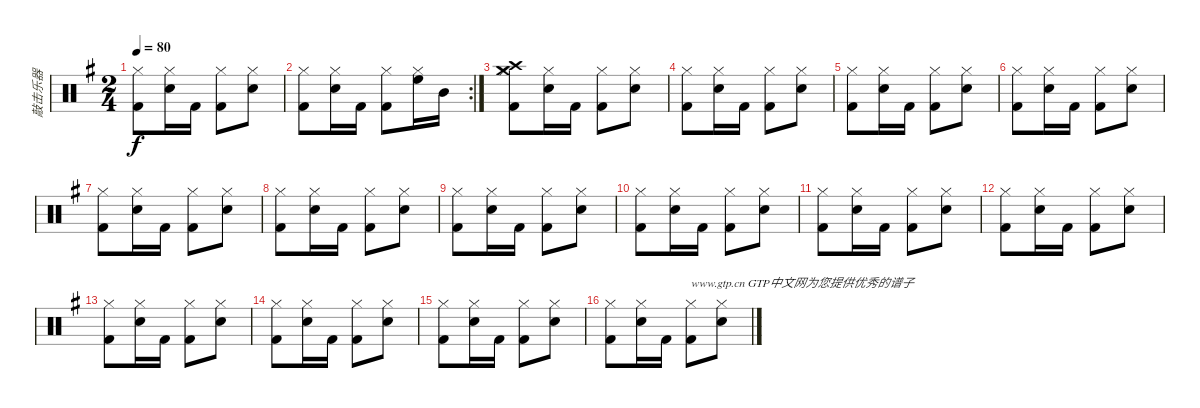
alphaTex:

\track ("敲击乐器" "敲击乐器") {instrument percussion}
\staff {score}
\articulation defaults
\ts (2 4)
\tempo 80
\clef neutral
\ks g
("Kick (hit) 2" "Hi-Hat (closed)").8{dy f} ("Electric Snare (hit)" "Hi-Hat (closed)").16 "Kick (hit) 2".16 ("Kick (hit) 2" "Hi-Hat (closed)").8 ("Electric Snare (hit)" "Hi-Hat (closed)").8 |
\rc 2
("Kick (hit) 2" "Hi-Hat (closed)").8 ("Electric Snare (hit)" "Hi-Hat (closed)").16 "Kick (hit) 2".16 ("Kick (hit) 2" "Hi-Hat (closed)").8 ("High Floor Tom (hit)" "Hi-Hat (closed)").16 "Mid Tom (hit)".16 |
("Kick (hit) 2" "Hi-Hat (closed)" "Crash medium (hit)" "Crash high (hit)").8 ("Electric Snare (hit)" "Hi-Hat (closed)").16 "Kick (hit) 2".16 ("Kick (hit) 2" "Hi-Hat (closed)").8 ("Electric Snare (hit)" "Hi-Hat (closed)").8 |
("Kick (hit) 2" "Hi-Hat (closed)").8 ("Electric Snare (hit)" "Hi-Hat (closed)").16 "Kick (hit) 2".16 ("Kick (hit) 2" "Hi-Hat (closed)").8 ("Electric Snare (hit)" "Hi-Hat (closed)").8 |
("Kick (hit) 2" "Hi-Hat (closed)").8 ("Electric Snare (hit)" "Hi-Hat (closed)").16 "Kick (hit) 2".16 ("Kick (hit) 2" "Hi-Hat (closed)").8 ("Electric Snare (hit)" "Hi-Hat (closed)").8 |
("Kick (hit) 2" "Hi-Hat (closed)").8 ("Electric Snare (hit)" "Hi-Hat (closed)").16 "Kick (hit) 2".16 ("Kick (hit) 2" "Hi-Hat (closed)").8 ("Electric Snare (hit)" "Hi-Hat (closed)").8 |
("Kick (hit) 2" "Hi-Hat (closed)").8 ("Electric Snare (hit)" "Hi-Hat (closed)").16 "Kick (hit) 2".16 ("Kick (hit) 2" "Hi-Hat (closed)").8 ("Electric Snare (hit)" "Hi-Hat (closed)").8 |
("Kick (hit) 2" "Hi-Hat (closed)").8 ("Electric Snare (hit)" "Hi-Hat (closed)").16 "Kick (hit) 2".16 ("Kick (hit) 2" "Hi-Hat (closed)").8 ("Electric Snare (hit)" "Hi-Hat (closed)").8 |
("Kick (hit) 2" "Hi-Hat (closed)").8 ("Electric Snare (hit)" "Hi-Hat (closed)").16 "Kick (hit) 2".16 ("Kick (hit) 2" "Hi-Hat (closed)").8 ("Electric Snare (hit)" "Hi-Hat (closed)").8 |
("Kick (hit) 2" "Hi-Hat (closed)").8 ("Electric Snare (hit)" "Hi-Hat (closed)").16 "Kick (hit) 2".16 ("Kick (hit) 2" "Hi-Hat (closed)").8 ("Electric Snare (hit)" "Hi-Hat (closed)").8 |
("Kick (hit) 2" "Hi-Hat (closed)").8 ("Electric Snare (hit)" "Hi-Hat (closed)").16 "Kick (hit) 2".16 ("Kick (hit) 2" "Hi-Hat (closed)").8 ("Electric Snare (hit)" "Hi-Hat (closed)").8 |
("Kick (hit) 2" "Hi-Hat (closed)").8 ("Electric Snare (hit)" "Hi-Hat (closed)").16 "Kick (hit) 2".16 ("Kick (hit) 2" "Hi-Hat (closed)").8 ("Electric Snare (hit)" "Hi-Hat (closed)").8 |
("Kick (hit) 2" "Hi-Hat (closed)").8 ("Electric Snare (hit)" "Hi-Hat (closed)").16 "Kick (hit) 2".16 ("Kick (hit) 2" "Hi-Hat (closed)").8 ("Electric Snare (hit)" "Hi-Hat (closed)").8 |
("Kick (hit) 2" "Hi-Hat (closed)").8 ("Electric Snare (hit)" "Hi-Hat (closed)").16 "Kick (hit) 2".16 ("Kick (hit) 2" "Hi-Hat (closed)").8 ("Electric Snare (hit)" "Hi-Hat (closed)").8 |
("Kick (hit) 2" "Hi-Hat (closed)").8 ("Electric Snare (hit)" "Hi-Hat (closed)").16 "Kick (hit) 2".16 ("Kick (hit) 2" "Hi-Hat (closed)").8 ("Electric Snare (hit)" "Hi-Hat (closed)").8 |
("Kick (hit) 2" "Hi-Hat (closed)").8 ("Electric Snare (hit)" "Hi-Hat (closed)").16 "Kick (hit) 2".16 ("Kick (hit) 2" "Hi-Hat (closed)").8{txt "www.gtp.cn GTP中文网为您提供优秀的谱子"} ("Electric Snare (hit)" "Hi-Hat (closed)").8
